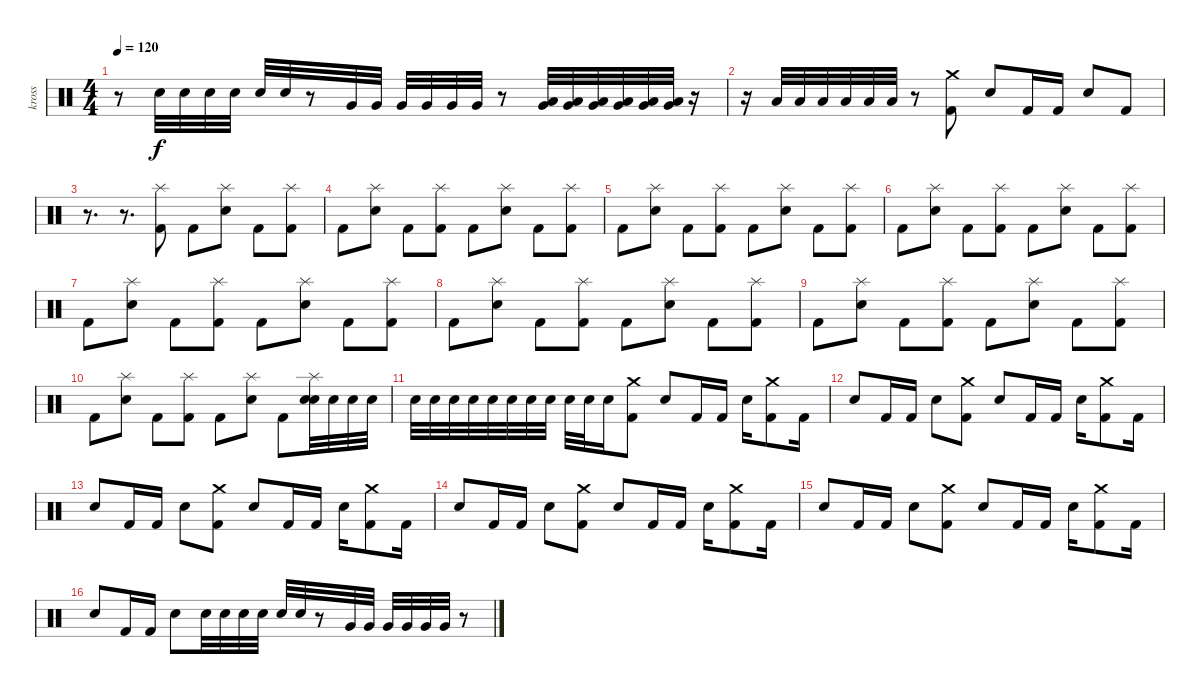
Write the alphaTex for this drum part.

\track ("kross" "kross") {instrument percussion}
\staff {score}
\articulation defaults
\ts (4 4)
\tempo 120
\clef neutral
\ks c
r.8{dy f} "Snare (hit) 2".32 "Snare (hit) 2".32 "Snare (hit) 2".32 "Snare (hit) 2".32 "Snare (hit) 2".32 "Snare (hit) 2".32 r.8 "Very Low Tom (hit)".32 "Very Low Tom (hit)".32 "Very Low Tom (hit)".32 "Very Low Tom (hit)".32 "Very Low Tom (hit)".32 "Very Low Tom (hit)".32 r.8 ("Very Low Tom (hit)" "Low Floor Tom (hit)").32 ("Very Low Tom (hit)" "Low Floor Tom (hit)").32 ("Very Low Tom (hit)" "Low Floor Tom (hit)").32 ("Very Low Tom (hit)" "Low Floor Tom (hit)").32 ("Very Low Tom (hit)" "Low Floor Tom (hit)").32 ("Very Low Tom (hit)" "Low Floor Tom (hit)").32 r.16 |
r.16 "Low Floor Tom (hit)".32 "Low Floor Tom (hit)".32 "Low Floor Tom (hit)".32 "Low Floor Tom (hit)".32 "Low Floor Tom (hit)".32 "Low Floor Tom (hit)".32 r.8 ("Crash medium (hit)" "Kick (hit) 2").8 "Electric Snare (hit)".8 "Kick (hit) 2".16 "Kick (hit) 2".16 "Electric Snare (hit)".8 "Kick (hit) 2".8 |
r.8{d} r.8{d} ("Splash (hit)" "Kick (hit) 2").8 "Kick (hit) 2".8 ("Splash (hit)" "Electric Snare (hit)").8 "Kick (hit) 2".8 ("Splash (hit)" "Kick (hit) 2").8 |
"Kick (hit) 2".8 ("Splash (hit)" "Electric Snare (hit)").8 "Kick (hit) 2".8 ("Splash (hit)" "Kick (hit) 2").8 "Kick (hit) 2".8 ("Splash (hit)" "Electric Snare (hit)").8 "Kick (hit) 2".8 ("Splash (hit)" "Kick (hit) 2").8 |
"Kick (hit) 2".8 ("Splash (hit)" "Electric Snare (hit)").8 "Kick (hit) 2".8 ("Splash (hit)" "Kick (hit) 2").8 "Kick (hit) 2".8 ("Splash (hit)" "Electric Snare (hit)").8 "Kick (hit) 2".8 ("Splash (hit)" "Kick (hit) 2").8 |
"Kick (hit) 2".8 ("Splash (hit)" "Electric Snare (hit)").8 "Kick (hit) 2".8 ("Splash (hit)" "Kick (hit) 2").8 "Kick (hit) 2".8 ("Splash (hit)" "Electric Snare (hit)").8 "Kick (hit) 2".8 ("Splash (hit)" "Kick (hit) 2").8 |
"Kick (hit) 2".8 ("Splash (hit)" "Electric Snare (hit)").8 "Kick (hit) 2".8 ("Splash (hit)" "Kick (hit) 2").8 "Kick (hit) 2".8 ("Splash (hit)" "Electric Snare (hit)").8 "Kick (hit) 2".8 ("Splash (hit)" "Kick (hit) 2").8 |
"Kick (hit) 2".8 ("Splash (hit)" "Electric Snare (hit)").8 "Kick (hit) 2".8 ("Splash (hit)" "Kick (hit) 2").8 "Kick (hit) 2".8 ("Splash (hit)" "Electric Snare (hit)").8 "Kick (hit) 2".8 ("Splash (hit)" "Kick (hit) 2").8 |
"Kick (hit) 2".8 ("Splash (hit)" "Electric Snare (hit)").8 "Kick (hit) 2".8 ("Splash (hit)" "Kick (hit) 2").8 "Kick (hit) 2".8 ("Splash (hit)" "Electric Snare (hit)").8 "Kick (hit) 2".8 ("Splash (hit)" "Kick (hit) 2").8 |
"Kick (hit) 2".8 ("Splash (hit)" "Electric Snare (hit)").8 "Kick (hit) 2".8 ("Splash (hit)" "Kick (hit) 2").8 "Kick (hit) 2".8 ("Splash (hit)" "Electric Snare (hit)").8 "Kick (hit) 2".8 ("Splash (hit)" "Electric Snare (hit)" "Electric Snare (hit)").32 "Electric Snare (hit)".32 "Electric Snare (hit)".32 "Electric Snare (hit)".32 |
"Electric Snare (hit)".32 "Electric Snare (hit)".32 "Electric Snare (hit)".32 "Electric Snare (hit)".32 "Electric Snare (hit)".32 "Electric Snare (hit)".32 "Electric Snare (hit)".32 "Electric Snare (hit)".32 "Electric Snare (hit)".32 "Electric Snare (hit)".32 "Electric Snare (hit)".16{volume 15} ("Crash medium (hit)" "Kick (hit) 2").8 "Electric Snare (hit)".8 "Kick (hit) 2".16 "Kick (hit) 2".16 "Electric Snare (hit)".16 ("Crash medium (hit)" "Kick (hit) 2").8 "Kick (hit) 2".16 |
"Electric Snare (hit)".8 "Kick (hit) 2".16 "Kick (hit) 2".16 "Electric Snare (hit)".8 ("Crash medium (hit)" "Kick (hit) 2").8 "Electric Snare (hit)".8 "Kick (hit) 2".16 "Kick (hit) 2".16 "Electric Snare (hit)".16 ("Crash medium (hit)" "Kick (hit) 2").8 "Kick (hit) 2".16 |
"Electric Snare (hit)".8 "Kick (hit) 2".16 "Kick (hit) 2".16 "Electric Snare (hit)".8 ("Crash medium (hit)" "Kick (hit) 2").8 "Electric Snare (hit)".8 "Kick (hit) 2".16 "Kick (hit) 2".16 "Electric Snare (hit)".16 ("Crash medium (hit)" "Kick (hit) 2").8 "Kick (hit) 2".16 |
"Electric Snare (hit)".8 "Kick (hit) 2".16 "Kick (hit) 2".16 "Electric Snare (hit)".8 ("Crash medium (hit)" "Kick (hit) 2").8 "Electric Snare (hit)".8 "Kick (hit) 2".16 "Kick (hit) 2".16 "Electric Snare (hit)".16 ("Crash medium (hit)" "Kick (hit) 2").8 "Kick (hit) 2".16 |
"Electric Snare (hit)".8 "Kick (hit) 2".16 "Kick (hit) 2".16 "Electric Snare (hit)".8 ("Crash medium (hit)" "Kick (hit) 2").8 "Electric Snare (hit)".8 "Kick (hit) 2".16 "Kick (hit) 2".16 "Electric Snare (hit)".16 ("Crash medium (hit)" "Kick (hit) 2").8 "Kick (hit) 2".16 |
"Electric Snare (hit)".8 "Kick (hit) 2".16 "Kick (hit) 2".16 "Electric Snare (hit)".8 "Snare (hit) 2".32 "Snare (hit) 2".32 "Snare (hit) 2".32 "Snare (hit) 2".32 "Snare (hit) 2".32 "Snare (hit) 2".32 r.8 "Very Low Tom (hit)".32 "Very Low Tom (hit)".32 "Very Low Tom (hit)".32 "Very Low Tom (hit)".32 "Very Low Tom (hit)".32 "Very Low Tom (hit)".32 r.8
